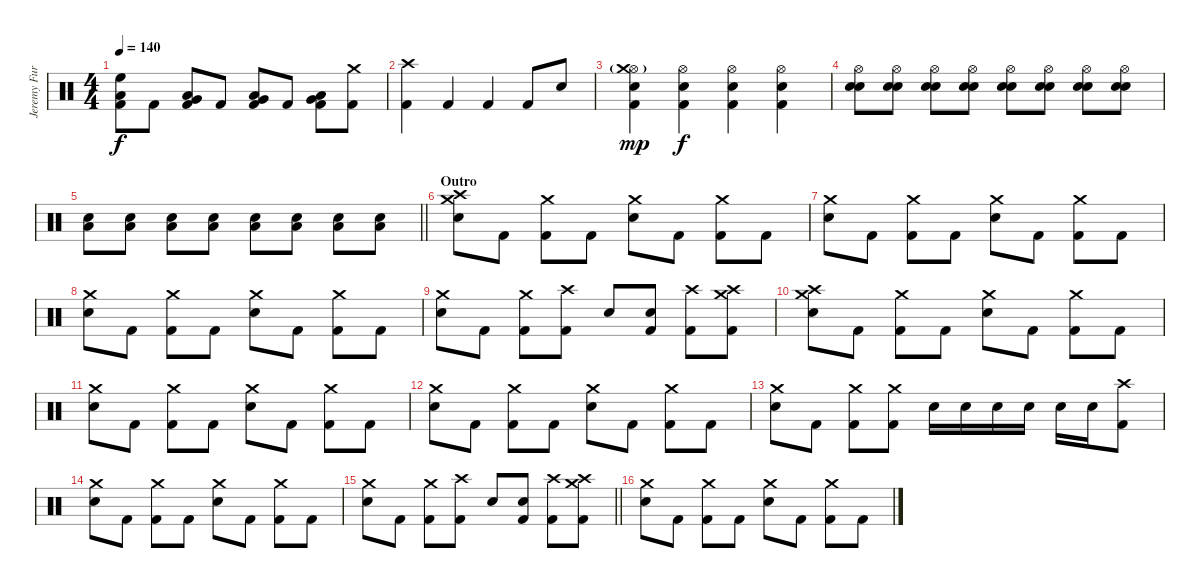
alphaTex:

\track ("Jeremy Furstenfeld" "Jeremy Fur") {instrument percussion}
\staff {score}
\articulation defaults
\ts (4 4)
\tempo 140
\clef neutral
\ks c
("High Floor Tom (hit)" "Low Tom (hit)" "Kick (hit) 2").8{dy f} "Kick (hit) 2".8 ("Low Tom (hit)" "Very Low Tom (hit)" "Kick (hit) 2").8 "Kick (hit) 2".8 ("Very Low Tom (hit)" "Low Floor Tom (hit)" "Kick (hit) 2").8 "Kick (hit) 2".8 ("Very Low Tom (hit)" "Low Floor Tom (hit)" "Kick (hit) 2").8 ("Crash medium (hit)" "Kick (hit) 2").8 |
("Crash high (hit)" "Kick (hit) 2").4 "Kick (hit) 2".4 "Kick (hit) 2".4 "Kick (hit) 2".8 "Snare (hit) 2".8 |
("Hi-Hat (open)" "Crash medium (hit)"{g} "Snare (hit) 2" "Kick (hit) 2").4{dy mp} ("Hi-Hat (open)" "Snare (hit) 2" "Kick (hit) 2").4{dy f} ("Hi-Hat (open)" "Snare (hit) 2" "Kick (hit) 2").4 ("Hi-Hat (open)" "Snare (hit) 2" "Kick (hit) 2").4 |
("Hi-Hat (open)" "Snare (hit) 2" "Snare (hit) 2").8 ("Hi-Hat (open)" "Snare (hit) 2" "Snare (hit) 2").8 ("Hi-Hat (open)" "Snare (hit) 2" "Snare (hit) 2").8 ("Hi-Hat (open)" "Snare (hit) 2" "Snare (hit) 2").8 ("Hi-Hat (open)" "Snare (hit) 2" "Snare (hit) 2").8 ("Hi-Hat (open)" "Snare (hit) 2" "Snare (hit) 2").8 ("Hi-Hat (open)" "Snare (hit) 2" "Snare (hit) 2").8 ("Hi-Hat (open)" "Snare (hit) 2" "Snare (hit) 2").8 |
\barLineRight lightlight
("Snare (hit) 2" "Low Floor Tom (hit)").8 ("Snare (hit) 2" "Low Floor Tom (hit)").8 ("Snare (hit) 2" "Low Floor Tom (hit)").8 ("Snare (hit) 2" "Low Floor Tom (hit)").8 ("Snare (hit) 2" "Low Floor Tom (hit)").8 ("Snare (hit) 2" "Low Floor Tom (hit)").8 ("Snare (hit) 2" "Low Floor Tom (hit)").8 ("Snare (hit) 2" "Low Floor Tom (hit)").8 |
\section ("" "Outro")
("Crash medium (hit)" "Crash high (hit)" "Snare (hit) 2").8 "Kick (hit) 2".8 ("Crash medium (hit)" "Kick (hit) 2").8 "Kick (hit) 2".8 ("Crash medium (hit)" "Snare (hit) 2").8 "Kick (hit) 2".8 ("Crash medium (hit)" "Kick (hit) 2").8 "Kick (hit) 2".8 |
("Crash medium (hit)" "Snare (hit) 2").8 "Kick (hit) 2".8 ("Crash medium (hit)" "Kick (hit) 2").8 "Kick (hit) 2".8 ("Crash medium (hit)" "Snare (hit) 2").8 "Kick (hit) 2".8 ("Crash medium (hit)" "Kick (hit) 2").8 "Kick (hit) 2".8 |
("Crash medium (hit)" "Snare (hit) 2").8 "Kick (hit) 2".8 ("Crash medium (hit)" "Kick (hit) 2").8 "Kick (hit) 2".8 ("Crash medium (hit)" "Snare (hit) 2").8 "Kick (hit) 2".8 ("Crash medium (hit)" "Kick (hit) 2").8 "Kick (hit) 2".8 |
("Crash medium (hit)" "Snare (hit) 2").8 "Kick (hit) 2".8 ("Crash medium (hit)" "Kick (hit) 2").8 ("Crash high (hit)" "Kick (hit) 2").8 "Snare (hit) 2".8 ("Snare (hit) 2" "Kick (hit) 2").8 ("Crash high (hit)" "Kick (hit) 2").8 ("Crash medium (hit)" "Crash high (hit)" "Kick (hit) 2").8 |
("Crash medium (hit)" "Crash high (hit)" "Snare (hit) 2").8 "Kick (hit) 2".8 ("Crash medium (hit)" "Kick (hit) 2").8 "Kick (hit) 2".8 ("Crash medium (hit)" "Snare (hit) 2").8 "Kick (hit) 2".8 ("Crash medium (hit)" "Kick (hit) 2").8 "Kick (hit) 2".8 |
("Crash medium (hit)" "Snare (hit) 2").8 "Kick (hit) 2".8 ("Crash medium (hit)" "Kick (hit) 2").8 "Kick (hit) 2".8 ("Crash medium (hit)" "Snare (hit) 2").8 "Kick (hit) 2".8 ("Crash medium (hit)" "Kick (hit) 2").8 "Kick (hit) 2".8 |
("Crash medium (hit)" "Snare (hit) 2").8 "Kick (hit) 2".8 ("Crash medium (hit)" "Kick (hit) 2").8 "Kick (hit) 2".8 ("Crash medium (hit)" "Snare (hit) 2").8 "Kick (hit) 2".8 ("Crash medium (hit)" "Kick (hit) 2").8 "Kick (hit) 2".8 |
("Crash medium (hit)" "Snare (hit) 2").8 "Kick (hit) 2".8 ("Crash medium (hit)" "Kick (hit) 2").8 ("Crash medium (hit)" "Kick (hit) 2").8 "Snare (hit) 2".16 "Snare (hit) 2".16 "Snare (hit) 2".16 "Snare (hit) 2".16 "Snare (hit) 2".16 "Snare (hit) 2".16 ("Crash high (hit)" "Kick (hit) 2").8 |
("Crash medium (hit)" "Snare (hit) 2").8 "Kick (hit) 2".8 ("Crash medium (hit)" "Kick (hit) 2").8 "Kick (hit) 2".8 ("Crash medium (hit)" "Snare (hit) 2").8 "Kick (hit) 2".8 ("Crash medium (hit)" "Kick (hit) 2").8 "Kick (hit) 2".8 |
\barLineRight lightlight
("Crash medium (hit)" "Snare (hit) 2").8 "Kick (hit) 2".8 ("Crash medium (hit)" "Kick (hit) 2").8 ("Crash high (hit)" "Kick (hit) 2").8 "Snare (hit) 2".8 ("Snare (hit) 2" "Kick (hit) 2").8 ("Crash high (hit)" "Kick (hit) 2").8 ("Crash medium (hit)" "Crash high (hit)" "Kick (hit) 2").8 |
("Crash medium (hit)" "Snare (hit) 2").8 "Kick (hit) 2".8 ("Crash medium (hit)" "Kick (hit) 2").8 "Kick (hit) 2".8 ("Crash medium (hit)" "Snare (hit) 2").8 "Kick (hit) 2".8 ("Crash medium (hit)" "Kick (hit) 2").8 "Kick (hit) 2".8
